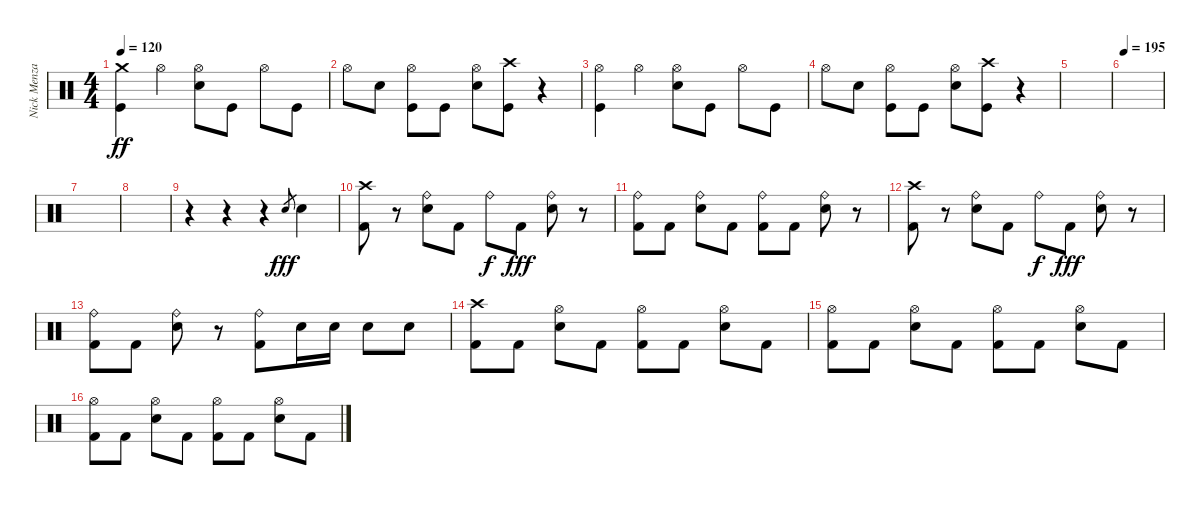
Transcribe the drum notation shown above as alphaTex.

\track ("Nick Menza (Drums)" "Nick Menza") {instrument percussion}
\staff {score}
\articulation defaults
\ts (4 4)
\tempo 120
\clef neutral
\ks c
("Kick (hit)" "Crash medium (hit)").4{dy ff} "Hi-Hat (open)".4 ("Hi-Hat (open)" "Snare (hit) 2").8 "Kick (hit)".8 "Hi-Hat (open)".8 "Kick (hit)".8 |
"Hi-Hat (open)".8 "Snare (hit) 2".8 ("Hi-Hat (open)" "Kick (hit)").8 "Kick (hit)".8 ("Hi-Hat (open)" "Snare (hit) 2").8 ("Kick (hit)" "Crash high (hit)").8 r.4 |
("Hi-Hat (open)" "Kick (hit)").4 "Hi-Hat (open)".4 ("Hi-Hat (open)" "Snare (hit) 2").8 "Kick (hit)".8 "Hi-Hat (open)".8 "Kick (hit)".8 |
"Hi-Hat (open)".8 "Snare (hit) 2".8 ("Hi-Hat (open)" "Kick (hit)").8 "Kick (hit)".8 ("Hi-Hat (open)" "Snare (hit) 2").8 ("Kick (hit)" "Crash high (hit)").8 r.4 |
|
\tempo 195
|
|
|
r.4 r.4 r.4 "Electric Snare (hit)".8{gr dy fff} "Electric Snare (hit)".4 |
("Kick (hit) 2" "Crash high (hit)").8 r.8 ("Electric Snare (hit)" "Ride (bell)").8 "Kick (hit) 2".8 "Ride (bell)".8{dy f} "Kick (hit) 2".8{dy fff} ("Electric Snare (hit)" "Ride (bell)").8 r.8 |
("Kick (hit) 2" "Ride (bell)").8 "Kick (hit) 2".8 ("Electric Snare (hit)" "Ride (bell)").8 "Kick (hit) 2".8 ("Kick (hit) 2" "Ride (bell)").8 "Kick (hit) 2".8 ("Electric Snare (hit)" "Ride (bell)").8 r.8 |
("Kick (hit) 2" "Crash high (hit)").8 r.8 ("Electric Snare (hit)" "Ride (bell)").8 "Kick (hit) 2".8 "Ride (bell)".8{dy f} "Kick (hit) 2".8{dy fff} ("Electric Snare (hit)" "Ride (bell)").8 r.8 |
("Kick (hit) 2" "Ride (bell)").8 "Kick (hit) 2".8 ("Electric Snare (hit)" "Ride (bell)").8 r.8 ("Kick (hit) 2" "Ride (bell)").8 "Electric Snare (hit)".16 "Electric Snare (hit)".16 "Electric Snare (hit)".8 "Electric Snare (hit)".8 |
("Kick (hit) 2" "Crash high (hit)").8 "Kick (hit) 2".8 ("Electric Snare (hit)" "Hi-Hat (open)").8 "Kick (hit) 2".8 ("Kick (hit) 2" "Hi-Hat (open)").8 "Kick (hit) 2".8 ("Electric Snare (hit)" "Hi-Hat (open)").8 "Kick (hit) 2".8 |
("Kick (hit) 2" "Hi-Hat (open)").8 "Kick (hit) 2".8 ("Electric Snare (hit)" "Hi-Hat (open)").8 "Kick (hit) 2".8 ("Kick (hit) 2" "Hi-Hat (open)").8 "Kick (hit) 2".8 ("Electric Snare (hit)" "Hi-Hat (open)").8 "Kick (hit) 2".8 |
("Kick (hit) 2" "Hi-Hat (open)").8 "Kick (hit) 2".8 ("Electric Snare (hit)" "Hi-Hat (open)").8 "Kick (hit) 2".8 ("Kick (hit) 2" "Hi-Hat (open)").8 "Kick (hit) 2".8 ("Electric Snare (hit)" "Hi-Hat (open)").8 "Kick (hit) 2".8
